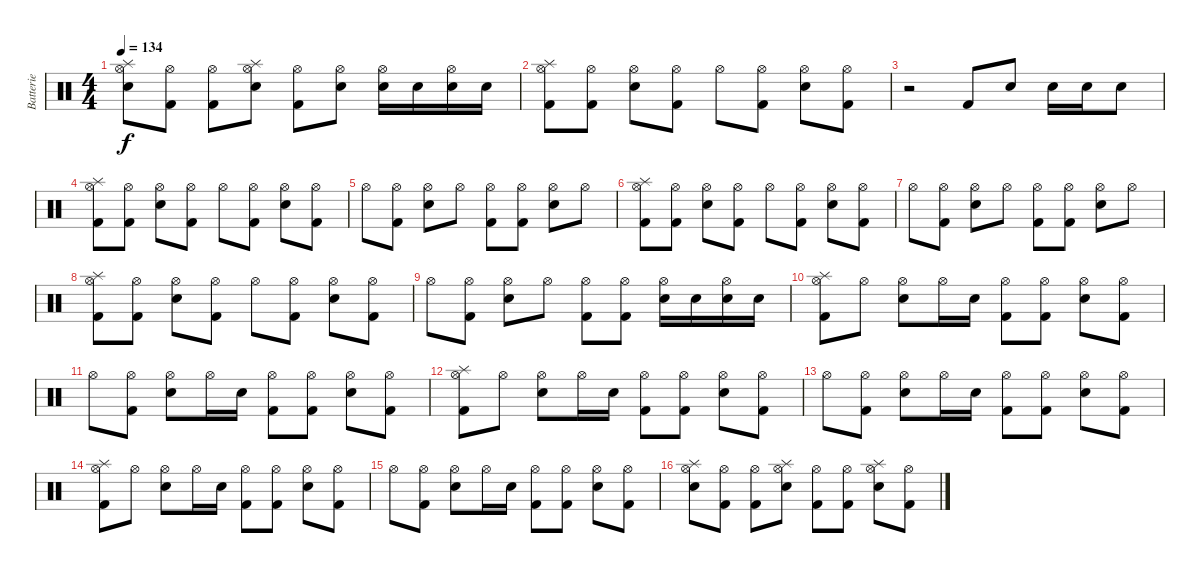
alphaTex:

\track ("Batterie" "Batterie") {instrument percussion}
\staff {score}
\articulation defaults
\ts (4 4)
\tempo 134
\clef neutral
\ks c
("Splash (hit)" "Hi-Hat (open)" "Snare (hit) 2").8{dy f} ("Hi-Hat (open)" "Kick (hit) 2").8 ("Hi-Hat (open)" "Kick (hit) 2").8 ("Splash (hit)" "Hi-Hat (open)" "Snare (hit) 2").8 ("Hi-Hat (open)" "Kick (hit) 2").8 ("Hi-Hat (open)" "Snare (hit) 2").8 ("Hi-Hat (open)" "Snare (hit) 2").16 "Snare (hit) 2".16 ("Hi-Hat (open)" "Snare (hit) 2").16 "Snare (hit) 2".16 |
("Splash (hit)" "Hi-Hat (open)" "Kick (hit) 2").8 ("Hi-Hat (open)" "Kick (hit) 2").8 ("Hi-Hat (open)" "Snare (hit) 2").8 ("Hi-Hat (open)" "Kick (hit) 2").8 "Hi-Hat (open)".8 ("Hi-Hat (open)" "Kick (hit) 2").8 ("Hi-Hat (open)" "Snare (hit) 2").8 ("Hi-Hat (open)" "Kick (hit) 2").8 |
r.2 "Kick (hit) 2".8 "Snare (hit) 2".8 "Snare (hit) 2".16 "Snare (hit) 2".16 "Snare (hit) 2".8 |
("Splash (hit)" "Hi-Hat (open)" "Kick (hit) 2").8 ("Hi-Hat (open)" "Kick (hit) 2").8 ("Hi-Hat (open)" "Snare (hit) 2").8 ("Hi-Hat (open)" "Kick (hit) 2").8 "Hi-Hat (open)".8 ("Hi-Hat (open)" "Kick (hit) 2").8 ("Hi-Hat (open)" "Snare (hit) 2").8 ("Hi-Hat (open)" "Kick (hit) 2").8 |
"Hi-Hat (open)".8 ("Hi-Hat (open)" "Kick (hit) 2").8 ("Hi-Hat (open)" "Snare (hit) 2").8 "Hi-Hat (open)".8 ("Hi-Hat (open)" "Kick (hit) 2").8 ("Hi-Hat (open)" "Kick (hit) 2").8 ("Hi-Hat (open)" "Snare (hit) 2").8 "Hi-Hat (open)".8 |
("Splash (hit)" "Hi-Hat (open)" "Kick (hit) 2").8 ("Hi-Hat (open)" "Kick (hit) 2").8 ("Hi-Hat (open)" "Snare (hit) 2").8 ("Hi-Hat (open)" "Kick (hit) 2").8 "Hi-Hat (open)".8 ("Hi-Hat (open)" "Kick (hit) 2").8 ("Hi-Hat (open)" "Snare (hit) 2").8 ("Hi-Hat (open)" "Kick (hit) 2").8 |
"Hi-Hat (open)".8 ("Hi-Hat (open)" "Kick (hit) 2").8 ("Hi-Hat (open)" "Snare (hit) 2").8 "Hi-Hat (open)".8 ("Hi-Hat (open)" "Kick (hit) 2").8 ("Hi-Hat (open)" "Kick (hit) 2").8 ("Hi-Hat (open)" "Snare (hit) 2").8 "Hi-Hat (open)".8 |
("Splash (hit)" "Hi-Hat (open)" "Kick (hit) 2").8 ("Hi-Hat (open)" "Kick (hit) 2").8 ("Hi-Hat (open)" "Snare (hit) 2").8 ("Hi-Hat (open)" "Kick (hit) 2").8 "Hi-Hat (open)".8 ("Hi-Hat (open)" "Kick (hit) 2").8 ("Hi-Hat (open)" "Snare (hit) 2").8 ("Hi-Hat (open)" "Kick (hit) 2").8 |
"Hi-Hat (open)".8 ("Hi-Hat (open)" "Kick (hit) 2").8 ("Hi-Hat (open)" "Snare (hit) 2").8 "Hi-Hat (open)".8 ("Hi-Hat (open)" "Kick (hit) 2").8 ("Hi-Hat (open)" "Kick (hit) 2").8 ("Hi-Hat (open)" "Snare (hit) 2").16 "Snare (hit) 2".16 ("Hi-Hat (open)" "Snare (hit) 2").16 "Snare (hit) 2".16 |
("Splash (hit)" "Hi-Hat (open)" "Kick (hit) 2").8 "Hi-Hat (open)".8 ("Hi-Hat (open)" "Snare (hit) 2").8 "Hi-Hat (open)".16 "Snare (hit) 2".16 ("Hi-Hat (open)" "Kick (hit) 2").8 ("Hi-Hat (open)" "Kick (hit) 2").8 ("Hi-Hat (open)" "Snare (hit) 2").8 ("Hi-Hat (open)" "Kick (hit) 2").8 |
"Hi-Hat (open)".8 ("Hi-Hat (open)" "Kick (hit) 2").8 ("Hi-Hat (open)" "Snare (hit) 2").8 "Hi-Hat (open)".16 "Snare (hit) 2".16 ("Hi-Hat (open)" "Kick (hit) 2").8 ("Hi-Hat (open)" "Kick (hit) 2").8 ("Hi-Hat (open)" "Snare (hit) 2").8 ("Hi-Hat (open)" "Kick (hit) 2").8 |
("Splash (hit)" "Hi-Hat (open)" "Kick (hit) 2").8 "Hi-Hat (open)".8 ("Hi-Hat (open)" "Snare (hit) 2").8 "Hi-Hat (open)".16 "Snare (hit) 2".16 ("Hi-Hat (open)" "Kick (hit) 2").8 ("Hi-Hat (open)" "Kick (hit) 2").8 ("Hi-Hat (open)" "Snare (hit) 2").8 ("Hi-Hat (open)" "Kick (hit) 2").8 |
"Hi-Hat (open)".8 ("Hi-Hat (open)" "Kick (hit) 2").8 ("Hi-Hat (open)" "Snare (hit) 2").8 "Hi-Hat (open)".16 "Snare (hit) 2".16 ("Hi-Hat (open)" "Kick (hit) 2").8 ("Hi-Hat (open)" "Kick (hit) 2").8 ("Hi-Hat (open)" "Snare (hit) 2").8 ("Hi-Hat (open)" "Kick (hit) 2").8 |
("Splash (hit)" "Hi-Hat (open)" "Kick (hit) 2").8 "Hi-Hat (open)".8 ("Hi-Hat (open)" "Snare (hit) 2").8 "Hi-Hat (open)".16 "Snare (hit) 2".16 ("Hi-Hat (open)" "Kick (hit) 2").8 ("Hi-Hat (open)" "Kick (hit) 2").8 ("Hi-Hat (open)" "Snare (hit) 2").8 ("Hi-Hat (open)" "Kick (hit) 2").8 |
"Hi-Hat (open)".8 ("Hi-Hat (open)" "Kick (hit) 2").8 ("Hi-Hat (open)" "Snare (hit) 2").8 "Hi-Hat (open)".16 "Snare (hit) 2".16 ("Hi-Hat (open)" "Kick (hit) 2").8 ("Hi-Hat (open)" "Kick (hit) 2").8 ("Hi-Hat (open)" "Snare (hit) 2").8 ("Hi-Hat (open)" "Kick (hit) 2").8 |
("Splash (hit)" "Hi-Hat (open)" "Snare (hit) 2").8 ("Hi-Hat (open)" "Kick (hit) 2").8 ("Hi-Hat (open)" "Kick (hit) 2").8 ("Hi-Hat (open)" "Splash (hit)" "Snare (hit) 2").8 ("Hi-Hat (open)" "Kick (hit) 2").8 ("Hi-Hat (open)" "Kick (hit) 2").8 ("Hi-Hat (open)" "Splash (hit)" "Snare (hit) 2").8 ("Hi-Hat (open)" "Kick (hit) 2").8
